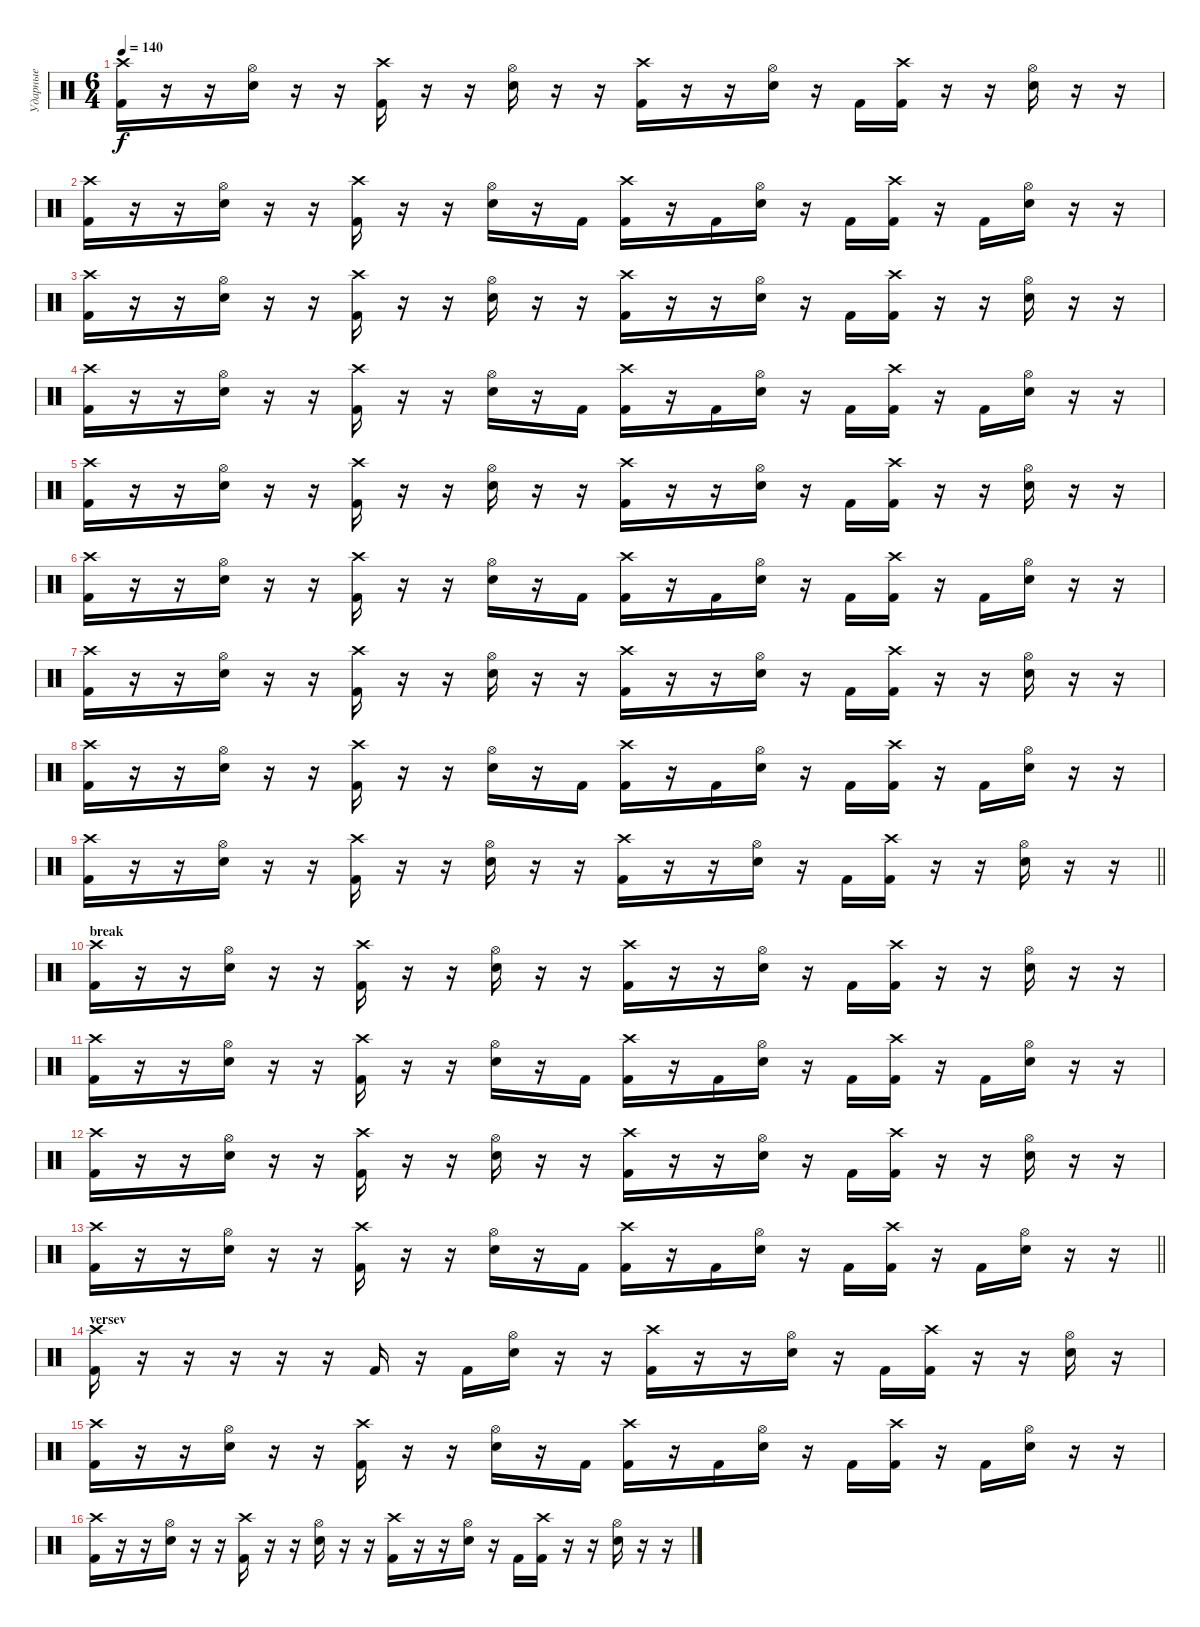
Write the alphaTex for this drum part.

\track ("Ударные" "Ударные") {instrument percussion}
\staff {score}
\articulation defaults
\ts (6 4)
\tempo 140
\clef neutral
\ks c
("Crash high (hit)" "Kick (hit) 2").16{dy f} r.16 r.16 ("Hi-Hat (open)" "Snare (hit) 2").16 r.16 r.16 ("Crash high (hit)" "Kick (hit) 2").16 r.16 r.16 ("Hi-Hat (open)" "Snare (hit) 2").16 r.16 r.16 ("Crash high (hit)" "Kick (hit) 2").16 r.16 r.16 ("Hi-Hat (open)" "Snare (hit) 2").16 r.16 "Kick (hit) 2".16 ("Crash high (hit)" "Kick (hit) 2").16 r.16 r.16 ("Hi-Hat (open)" "Snare (hit) 2").16 r.16 r.16 |
("Crash high (hit)" "Kick (hit) 2").16 r.16 r.16 ("Hi-Hat (open)" "Snare (hit) 2").16 r.16 r.16 ("Crash high (hit)" "Kick (hit) 2").16 r.16 r.16 ("Hi-Hat (open)" "Snare (hit) 2").16 r.16 "Kick (hit) 2".16 ("Crash high (hit)" "Kick (hit) 2").16 r.16 "Kick (hit) 2".16 ("Hi-Hat (open)" "Snare (hit) 2").16 r.16 "Kick (hit) 2".16 ("Crash high (hit)" "Kick (hit) 2").16 r.16 "Kick (hit) 2".16 ("Hi-Hat (open)" "Snare (hit) 2").16 r.16 r.16 |
("Crash high (hit)" "Kick (hit) 2").16 r.16 r.16 ("Hi-Hat (open)" "Snare (hit) 2").16 r.16 r.16 ("Crash high (hit)" "Kick (hit) 2").16 r.16 r.16 ("Hi-Hat (open)" "Snare (hit) 2").16 r.16 r.16 ("Crash high (hit)" "Kick (hit) 2").16 r.16 r.16 ("Hi-Hat (open)" "Snare (hit) 2").16 r.16 "Kick (hit) 2".16 ("Crash high (hit)" "Kick (hit) 2").16 r.16 r.16 ("Hi-Hat (open)" "Snare (hit) 2").16 r.16 r.16 |
("Crash high (hit)" "Kick (hit) 2").16 r.16 r.16 ("Hi-Hat (open)" "Snare (hit) 2").16 r.16 r.16 ("Crash high (hit)" "Kick (hit) 2").16 r.16 r.16 ("Hi-Hat (open)" "Snare (hit) 2").16 r.16 "Kick (hit) 2".16 ("Crash high (hit)" "Kick (hit) 2").16 r.16 "Kick (hit) 2".16 ("Hi-Hat (open)" "Snare (hit) 2").16 r.16 "Kick (hit) 2".16 ("Crash high (hit)" "Kick (hit) 2").16 r.16 "Kick (hit) 2".16 ("Hi-Hat (open)" "Snare (hit) 2").16 r.16 r.16 |
("Crash high (hit)" "Kick (hit) 2").16 r.16 r.16 ("Hi-Hat (open)" "Snare (hit) 2").16 r.16 r.16 ("Crash high (hit)" "Kick (hit) 2").16 r.16 r.16 ("Hi-Hat (open)" "Snare (hit) 2").16 r.16 r.16 ("Crash high (hit)" "Kick (hit) 2").16 r.16 r.16 ("Hi-Hat (open)" "Snare (hit) 2").16 r.16 "Kick (hit) 2".16 ("Crash high (hit)" "Kick (hit) 2").16 r.16 r.16 ("Hi-Hat (open)" "Snare (hit) 2").16 r.16 r.16 |
("Crash high (hit)" "Kick (hit) 2").16 r.16 r.16 ("Hi-Hat (open)" "Snare (hit) 2").16 r.16 r.16 ("Crash high (hit)" "Kick (hit) 2").16 r.16 r.16 ("Hi-Hat (open)" "Snare (hit) 2").16 r.16 "Kick (hit) 2".16 ("Crash high (hit)" "Kick (hit) 2").16 r.16 "Kick (hit) 2".16 ("Hi-Hat (open)" "Snare (hit) 2").16 r.16 "Kick (hit) 2".16 ("Crash high (hit)" "Kick (hit) 2").16 r.16 "Kick (hit) 2".16 ("Hi-Hat (open)" "Snare (hit) 2").16 r.16 r.16 |
("Crash high (hit)" "Kick (hit) 2").16 r.16 r.16 ("Hi-Hat (open)" "Snare (hit) 2").16 r.16 r.16 ("Crash high (hit)" "Kick (hit) 2").16 r.16 r.16 ("Hi-Hat (open)" "Snare (hit) 2").16 r.16 r.16 ("Crash high (hit)" "Kick (hit) 2").16 r.16 r.16 ("Hi-Hat (open)" "Snare (hit) 2").16 r.16 "Kick (hit) 2".16 ("Crash high (hit)" "Kick (hit) 2").16 r.16 r.16 ("Hi-Hat (open)" "Snare (hit) 2").16 r.16 r.16 |
("Crash high (hit)" "Kick (hit) 2").16 r.16 r.16 ("Hi-Hat (open)" "Snare (hit) 2").16 r.16 r.16 ("Crash high (hit)" "Kick (hit) 2").16 r.16 r.16 ("Hi-Hat (open)" "Snare (hit) 2").16 r.16 "Kick (hit) 2".16 ("Crash high (hit)" "Kick (hit) 2").16 r.16 "Kick (hit) 2".16 ("Hi-Hat (open)" "Snare (hit) 2").16 r.16 "Kick (hit) 2".16 ("Crash high (hit)" "Kick (hit) 2").16 r.16 "Kick (hit) 2".16 ("Hi-Hat (open)" "Snare (hit) 2").16 r.16 r.16 |
\barLineRight lightlight
("Crash high (hit)" "Kick (hit) 2").16 r.16 r.16 ("Hi-Hat (open)" "Snare (hit) 2").16 r.16 r.16 ("Crash high (hit)" "Kick (hit) 2").16 r.16 r.16 ("Hi-Hat (open)" "Snare (hit) 2").16 r.16 r.16 ("Crash high (hit)" "Kick (hit) 2").16 r.16 r.16 ("Hi-Hat (open)" "Snare (hit) 2").16 r.16 "Kick (hit) 2".16 ("Crash high (hit)" "Kick (hit) 2").16 r.16 r.16 ("Hi-Hat (open)" "Snare (hit) 2").16 r.16 r.16 |
\section ("" "break")
("Crash high (hit)" "Kick (hit) 2").16 r.16 r.16 ("Hi-Hat (open)" "Snare (hit) 2").16 r.16 r.16 ("Crash high (hit)" "Kick (hit) 2").16 r.16 r.16 ("Hi-Hat (open)" "Snare (hit) 2").16 r.16 r.16 ("Crash high (hit)" "Kick (hit) 2").16 r.16 r.16 ("Hi-Hat (open)" "Snare (hit) 2").16 r.16 "Kick (hit) 2".16 ("Crash high (hit)" "Kick (hit) 2").16 r.16 r.16 ("Hi-Hat (open)" "Snare (hit) 2").16 r.16 r.16 |
("Crash high (hit)" "Kick (hit) 2").16 r.16 r.16 ("Hi-Hat (open)" "Snare (hit) 2").16 r.16 r.16 ("Crash high (hit)" "Kick (hit) 2").16 r.16 r.16 ("Hi-Hat (open)" "Snare (hit) 2").16 r.16 "Kick (hit) 2".16 ("Crash high (hit)" "Kick (hit) 2").16 r.16 "Kick (hit) 2".16 ("Hi-Hat (open)" "Snare (hit) 2").16 r.16 "Kick (hit) 2".16 ("Crash high (hit)" "Kick (hit) 2").16 r.16 "Kick (hit) 2".16 ("Hi-Hat (open)" "Snare (hit) 2").16 r.16 r.16 |
("Crash high (hit)" "Kick (hit) 2").16 r.16 r.16 ("Hi-Hat (open)" "Snare (hit) 2").16 r.16 r.16 ("Crash high (hit)" "Kick (hit) 2").16 r.16 r.16 ("Hi-Hat (open)" "Snare (hit) 2").16 r.16 r.16 ("Crash high (hit)" "Kick (hit) 2").16 r.16 r.16 ("Hi-Hat (open)" "Snare (hit) 2").16 r.16 "Kick (hit) 2".16 ("Crash high (hit)" "Kick (hit) 2").16 r.16 r.16 ("Hi-Hat (open)" "Snare (hit) 2").16 r.16 r.16 |
\barLineRight lightlight
("Crash high (hit)" "Kick (hit) 2").16 r.16 r.16 ("Hi-Hat (open)" "Snare (hit) 2").16 r.16 r.16 ("Crash high (hit)" "Kick (hit) 2").16 r.16 r.16 ("Hi-Hat (open)" "Snare (hit) 2").16 r.16 "Kick (hit) 2".16 ("Crash high (hit)" "Kick (hit) 2").16 r.16 "Kick (hit) 2".16 ("Hi-Hat (open)" "Snare (hit) 2").16 r.16 "Kick (hit) 2".16 ("Crash high (hit)" "Kick (hit) 2").16 r.16 "Kick (hit) 2".16 ("Hi-Hat (open)" "Snare (hit) 2").16 r.16 r.16 |
\section ("" "versev")
("Crash high (hit)" "Kick (hit) 2").16 r.16 r.16 r.16 r.16 r.16 "Kick (hit) 2".16 r.16 "Kick (hit) 2".16 ("Hi-Hat (open)" "Snare (hit) 2").16 r.16 r.16 ("Crash high (hit)" "Kick (hit) 2").16 r.16 r.16 ("Hi-Hat (open)" "Snare (hit) 2").16 r.16 "Kick (hit) 2".16 ("Crash high (hit)" "Kick (hit) 2").16 r.16 r.16 ("Hi-Hat (open)" "Snare (hit) 2").16 r.16 |
("Crash high (hit)" "Kick (hit) 2").16 r.16 r.16 ("Hi-Hat (open)" "Snare (hit) 2").16 r.16 r.16 ("Crash high (hit)" "Kick (hit) 2").16 r.16 r.16 ("Hi-Hat (open)" "Snare (hit) 2").16 r.16 "Kick (hit) 2".16 ("Crash high (hit)" "Kick (hit) 2").16 r.16 "Kick (hit) 2".16 ("Hi-Hat (open)" "Snare (hit) 2").16 r.16 "Kick (hit) 2".16 ("Crash high (hit)" "Kick (hit) 2").16 r.16 "Kick (hit) 2".16 ("Hi-Hat (open)" "Snare (hit) 2").16 r.16 r.16 |
("Crash high (hit)" "Kick (hit) 2").16 r.16 r.16 ("Hi-Hat (open)" "Snare (hit) 2").16 r.16 r.16 ("Crash high (hit)" "Kick (hit) 2").16 r.16 r.16 ("Hi-Hat (open)" "Snare (hit) 2").16 r.16 r.16 ("Crash high (hit)" "Kick (hit) 2").16 r.16 r.16 ("Hi-Hat (open)" "Snare (hit) 2").16 r.16 "Kick (hit) 2".16 ("Crash high (hit)" "Kick (hit) 2").16 r.16 r.16 ("Hi-Hat (open)" "Snare (hit) 2").16 r.16 r.16
